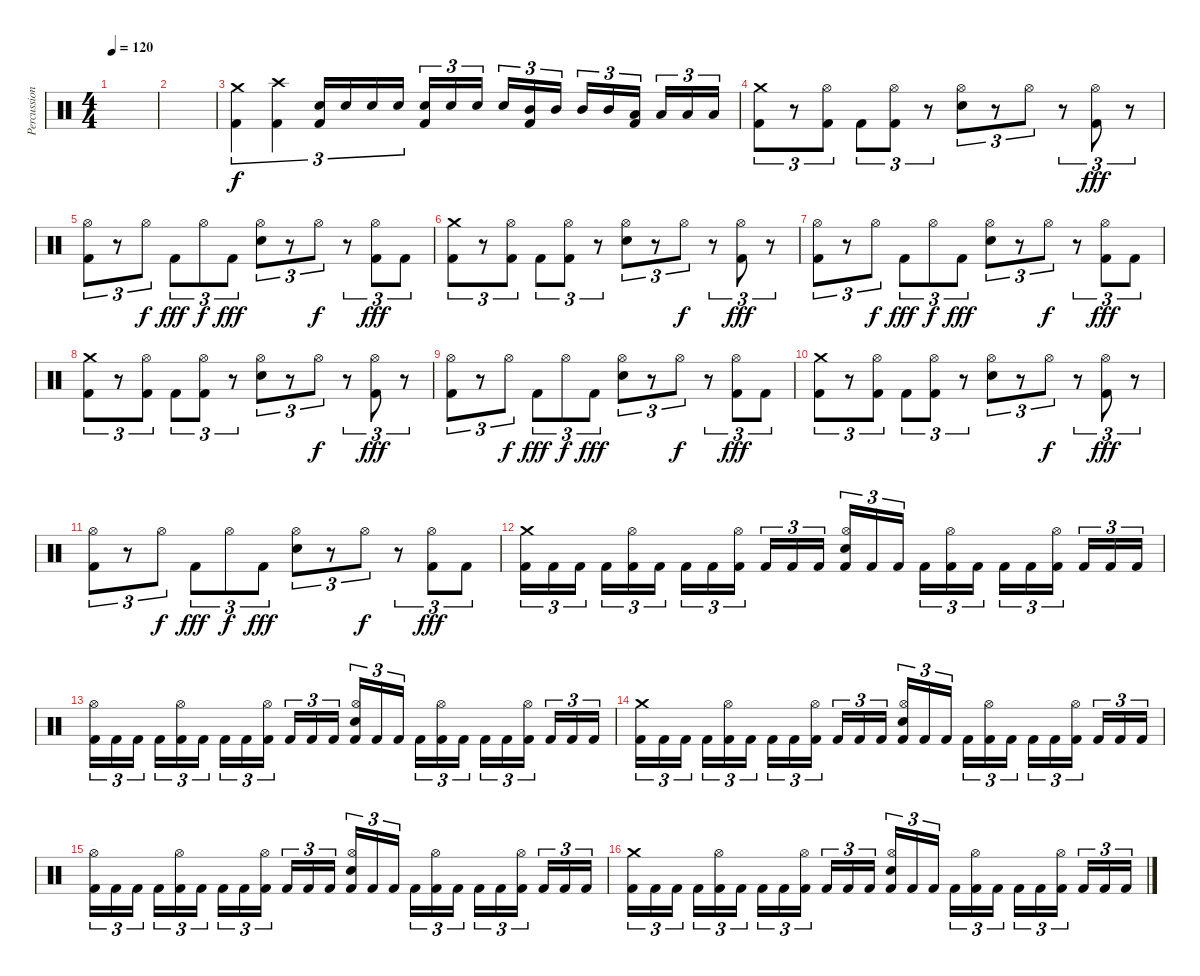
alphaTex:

\track ("Percussions" "Percussion") {instrument percussion}
\staff {score}
\articulation defaults
\ts (4 4)
\tempo 120
\clef neutral
\ks c
|
|
("Crash medium (hit)" "Kick (hit) 2").4{tu (3 2)} ("Crash high (hit)" "Kick (hit) 2").4{tu (3 2)} ("Electric Snare (hit)" "Kick (hit) 2").16{tu (3 2)} "Electric Snare (hit)".16{tu (3 2)} "Electric Snare (hit)".16{tu (3 2)} "Electric Snare (hit)".16{tu (3 2)} ("Electric Snare (hit)" "Kick (hit) 2").16{tu (3 2)} "Electric Snare (hit)".16{tu (3 2)} "Electric Snare (hit)".16{tu (3 2) beam splitsecondary} "Electric Snare (hit)".16{tu (3 2)} ("Mid Tom (hit)" "Kick (hit) 2").16{tu (3 2)} "Mid Tom (hit)".16{tu (3 2)} "Mid Tom (hit)".16{tu (3 2)} "Mid Tom (hit)".16{tu (3 2)} ("Low Tom (hit)" "Kick (hit) 2").16{tu (3 2) beam splitsecondary} "Low Tom (hit)".16{tu (3 2)} "Low Tom (hit)".16{tu (3 2)} "Low Tom (hit)".16{tu (3 2)} |
("Crash medium (hit)" "Kick (hit) 2").8{tu (3 2)} r.8{tu (3 2)} ("Hi-Hat (open)" "Kick (hit) 2").8{tu (3 2)} "Kick (hit) 2".8{tu (3 2)} ("Hi-Hat (open)" "Kick (hit) 2").8{tu (3 2)} r.8{tu (3 2)} ("Hi-Hat (open)" "Snare (hit) 2").8{tu (3 2)} r.8{tu (3 2)} "Hi-Hat (open)".8{tu (3 2) dy f} r.8{tu (3 2)} ("Hi-Hat (open)" "Kick (hit) 2").8{tu (3 2) dy fff} r.8{tu (3 2)} |
("Hi-Hat (open)" "Kick (hit) 2").8{tu (3 2)} r.8{tu (3 2)} "Hi-Hat (open)".8{tu (3 2) dy f} "Kick (hit) 2".8{tu (3 2) dy fff} "Hi-Hat (open)".8{tu (3 2) dy f} "Kick (hit) 2".8{tu (3 2) dy fff} ("Hi-Hat (open)" "Snare (hit) 2").8{tu (3 2)} r.8{tu (3 2)} "Hi-Hat (open)".8{tu (3 2) dy f} r.8{tu (3 2)} ("Hi-Hat (open)" "Kick (hit) 2").8{tu (3 2) dy fff} "Kick (hit) 2".8{tu (3 2)} |
("Crash medium (hit)" "Kick (hit) 2").8{tu (3 2)} r.8{tu (3 2)} ("Hi-Hat (open)" "Kick (hit) 2").8{tu (3 2)} "Kick (hit) 2".8{tu (3 2)} ("Hi-Hat (open)" "Kick (hit) 2").8{tu (3 2)} r.8{tu (3 2)} ("Hi-Hat (open)" "Snare (hit) 2").8{tu (3 2)} r.8{tu (3 2)} "Hi-Hat (open)".8{tu (3 2) dy f} r.8{tu (3 2)} ("Hi-Hat (open)" "Kick (hit) 2").8{tu (3 2) dy fff} r.8{tu (3 2)} |
("Hi-Hat (open)" "Kick (hit) 2").8{tu (3 2)} r.8{tu (3 2)} "Hi-Hat (open)".8{tu (3 2) dy f} "Kick (hit) 2".8{tu (3 2) dy fff} "Hi-Hat (open)".8{tu (3 2) dy f} "Kick (hit) 2".8{tu (3 2) dy fff} ("Hi-Hat (open)" "Snare (hit) 2").8{tu (3 2)} r.8{tu (3 2)} "Hi-Hat (open)".8{tu (3 2) dy f} r.8{tu (3 2)} ("Hi-Hat (open)" "Kick (hit) 2").8{tu (3 2) dy fff} "Kick (hit) 2".8{tu (3 2)} |
("Crash medium (hit)" "Kick (hit) 2").8{tu (3 2)} r.8{tu (3 2)} ("Hi-Hat (open)" "Kick (hit) 2").8{tu (3 2)} "Kick (hit) 2".8{tu (3 2)} ("Hi-Hat (open)" "Kick (hit) 2").8{tu (3 2)} r.8{tu (3 2)} ("Hi-Hat (open)" "Snare (hit) 2").8{tu (3 2)} r.8{tu (3 2)} "Hi-Hat (open)".8{tu (3 2) dy f} r.8{tu (3 2)} ("Hi-Hat (open)" "Kick (hit) 2").8{tu (3 2) dy fff} r.8{tu (3 2)} |
("Hi-Hat (open)" "Kick (hit) 2").8{tu (3 2)} r.8{tu (3 2)} "Hi-Hat (open)".8{tu (3 2) dy f} "Kick (hit) 2".8{tu (3 2) dy fff} "Hi-Hat (open)".8{tu (3 2) dy f} "Kick (hit) 2".8{tu (3 2) dy fff} ("Hi-Hat (open)" "Snare (hit) 2").8{tu (3 2)} r.8{tu (3 2)} "Hi-Hat (open)".8{tu (3 2) dy f} r.8{tu (3 2)} ("Hi-Hat (open)" "Kick (hit) 2").8{tu (3 2) dy fff} "Kick (hit) 2".8{tu (3 2)} |
("Crash medium (hit)" "Kick (hit) 2").8{tu (3 2)} r.8{tu (3 2)} ("Hi-Hat (open)" "Kick (hit) 2").8{tu (3 2)} "Kick (hit) 2".8{tu (3 2)} ("Hi-Hat (open)" "Kick (hit) 2").8{tu (3 2)} r.8{tu (3 2)} ("Hi-Hat (open)" "Snare (hit) 2").8{tu (3 2)} r.8{tu (3 2)} "Hi-Hat (open)".8{tu (3 2) dy f} r.8{tu (3 2)} ("Hi-Hat (open)" "Kick (hit) 2").8{tu (3 2) dy fff} r.8{tu (3 2)} |
("Hi-Hat (open)" "Kick (hit) 2").8{tu (3 2)} r.8{tu (3 2)} "Hi-Hat (open)".8{tu (3 2) dy f} "Kick (hit) 2".8{tu (3 2) dy fff} "Hi-Hat (open)".8{tu (3 2) dy f} "Kick (hit) 2".8{tu (3 2) dy fff} ("Hi-Hat (open)" "Snare (hit) 2").8{tu (3 2)} r.8{tu (3 2)} "Hi-Hat (open)".8{tu (3 2) dy f} r.8{tu (3 2)} ("Hi-Hat (open)" "Kick (hit) 2").8{tu (3 2) dy fff} "Kick (hit) 2".8{tu (3 2)} |
("Crash medium (hit)" "Kick (hit) 2").16{tu (3 2)} "Kick (hit) 2".16{tu (3 2)} "Kick (hit) 2".16{tu (3 2) beam splitsecondary} "Kick (hit) 2".16{tu (3 2)} ("Hi-Hat (open)" "Kick (hit) 2").16{tu (3 2)} "Kick (hit) 2".16{tu (3 2)} "Kick (hit) 2".16{tu (3 2)} "Kick (hit) 2".16{tu (3 2)} ("Hi-Hat (open)" "Kick (hit) 2").16{tu (3 2) beam splitsecondary} "Kick (hit) 2".16{tu (3 2)} "Kick (hit) 2".16{tu (3 2)} "Kick (hit) 2".16{tu (3 2)} ("Hi-Hat (open)" "Snare (hit) 2" "Kick (hit) 2").16{tu (3 2)} "Kick (hit) 2".16{tu (3 2)} "Kick (hit) 2".16{tu (3 2) beam splitsecondary} "Kick (hit) 2".16{tu (3 2)} ("Hi-Hat (open)" "Kick (hit) 2").16{tu (3 2)} "Kick (hit) 2".16{tu (3 2)} "Kick (hit) 2".16{tu (3 2)} "Kick (hit) 2".16{tu (3 2)} ("Hi-Hat (open)" "Kick (hit) 2").16{tu (3 2) beam splitsecondary} "Kick (hit) 2".16{tu (3 2)} "Kick (hit) 2".16{tu (3 2)} "Kick (hit) 2".16{tu (3 2)} |
("Hi-Hat (open)" "Kick (hit) 2").16{tu (3 2)} "Kick (hit) 2".16{tu (3 2)} "Kick (hit) 2".16{tu (3 2) beam splitsecondary} "Kick (hit) 2".16{tu (3 2)} ("Hi-Hat (open)" "Kick (hit) 2").16{tu (3 2)} "Kick (hit) 2".16{tu (3 2)} "Kick (hit) 2".16{tu (3 2)} "Kick (hit) 2".16{tu (3 2)} ("Hi-Hat (open)" "Kick (hit) 2").16{tu (3 2) beam splitsecondary} "Kick (hit) 2".16{tu (3 2)} "Kick (hit) 2".16{tu (3 2)} "Kick (hit) 2".16{tu (3 2)} ("Hi-Hat (open)" "Snare (hit) 2" "Kick (hit) 2").16{tu (3 2)} "Kick (hit) 2".16{tu (3 2)} "Kick (hit) 2".16{tu (3 2) beam splitsecondary} "Kick (hit) 2".16{tu (3 2)} ("Hi-Hat (open)" "Kick (hit) 2").16{tu (3 2)} "Kick (hit) 2".16{tu (3 2)} "Kick (hit) 2".16{tu (3 2)} "Kick (hit) 2".16{tu (3 2)} ("Hi-Hat (open)" "Kick (hit) 2").16{tu (3 2) beam splitsecondary} "Kick (hit) 2".16{tu (3 2)} "Kick (hit) 2".16{tu (3 2)} "Kick (hit) 2".16{tu (3 2)} |
("Crash medium (hit)" "Kick (hit) 2").16{tu (3 2)} "Kick (hit) 2".16{tu (3 2)} "Kick (hit) 2".16{tu (3 2) beam splitsecondary} "Kick (hit) 2".16{tu (3 2)} ("Hi-Hat (open)" "Kick (hit) 2").16{tu (3 2)} "Kick (hit) 2".16{tu (3 2)} "Kick (hit) 2".16{tu (3 2)} "Kick (hit) 2".16{tu (3 2)} ("Hi-Hat (open)" "Kick (hit) 2").16{tu (3 2) beam splitsecondary} "Kick (hit) 2".16{tu (3 2)} "Kick (hit) 2".16{tu (3 2)} "Kick (hit) 2".16{tu (3 2)} ("Hi-Hat (open)" "Snare (hit) 2" "Kick (hit) 2").16{tu (3 2)} "Kick (hit) 2".16{tu (3 2)} "Kick (hit) 2".16{tu (3 2) beam splitsecondary} "Kick (hit) 2".16{tu (3 2)} ("Hi-Hat (open)" "Kick (hit) 2").16{tu (3 2)} "Kick (hit) 2".16{tu (3 2)} "Kick (hit) 2".16{tu (3 2)} "Kick (hit) 2".16{tu (3 2)} ("Hi-Hat (open)" "Kick (hit) 2").16{tu (3 2) beam splitsecondary} "Kick (hit) 2".16{tu (3 2)} "Kick (hit) 2".16{tu (3 2)} "Kick (hit) 2".16{tu (3 2)} |
("Hi-Hat (open)" "Kick (hit) 2").16{tu (3 2)} "Kick (hit) 2".16{tu (3 2)} "Kick (hit) 2".16{tu (3 2) beam splitsecondary} "Kick (hit) 2".16{tu (3 2)} ("Hi-Hat (open)" "Kick (hit) 2").16{tu (3 2)} "Kick (hit) 2".16{tu (3 2)} "Kick (hit) 2".16{tu (3 2)} "Kick (hit) 2".16{tu (3 2)} ("Hi-Hat (open)" "Kick (hit) 2").16{tu (3 2) beam splitsecondary} "Kick (hit) 2".16{tu (3 2)} "Kick (hit) 2".16{tu (3 2)} "Kick (hit) 2".16{tu (3 2)} ("Hi-Hat (open)" "Snare (hit) 2" "Kick (hit) 2").16{tu (3 2)} "Kick (hit) 2".16{tu (3 2)} "Kick (hit) 2".16{tu (3 2) beam splitsecondary} "Kick (hit) 2".16{tu (3 2)} ("Hi-Hat (open)" "Kick (hit) 2").16{tu (3 2)} "Kick (hit) 2".16{tu (3 2)} "Kick (hit) 2".16{tu (3 2)} "Kick (hit) 2".16{tu (3 2)} ("Hi-Hat (open)" "Kick (hit) 2").16{tu (3 2) beam splitsecondary} "Kick (hit) 2".16{tu (3 2)} "Kick (hit) 2".16{tu (3 2)} "Kick (hit) 2".16{tu (3 2)} |
("Crash medium (hit)" "Kick (hit) 2").16{tu (3 2)} "Kick (hit) 2".16{tu (3 2)} "Kick (hit) 2".16{tu (3 2) beam splitsecondary} "Kick (hit) 2".16{tu (3 2)} ("Hi-Hat (open)" "Kick (hit) 2").16{tu (3 2)} "Kick (hit) 2".16{tu (3 2)} "Kick (hit) 2".16{tu (3 2)} "Kick (hit) 2".16{tu (3 2)} ("Hi-Hat (open)" "Kick (hit) 2").16{tu (3 2) beam splitsecondary} "Kick (hit) 2".16{tu (3 2)} "Kick (hit) 2".16{tu (3 2)} "Kick (hit) 2".16{tu (3 2)} ("Hi-Hat (open)" "Snare (hit) 2" "Kick (hit) 2").16{tu (3 2)} "Kick (hit) 2".16{tu (3 2)} "Kick (hit) 2".16{tu (3 2) beam splitsecondary} "Kick (hit) 2".16{tu (3 2)} ("Hi-Hat (open)" "Kick (hit) 2").16{tu (3 2)} "Kick (hit) 2".16{tu (3 2)} "Kick (hit) 2".16{tu (3 2)} "Kick (hit) 2".16{tu (3 2)} ("Hi-Hat (open)" "Kick (hit) 2").16{tu (3 2) beam splitsecondary} "Kick (hit) 2".16{tu (3 2)} "Kick (hit) 2".16{tu (3 2)} "Kick (hit) 2".16{tu (3 2)}
